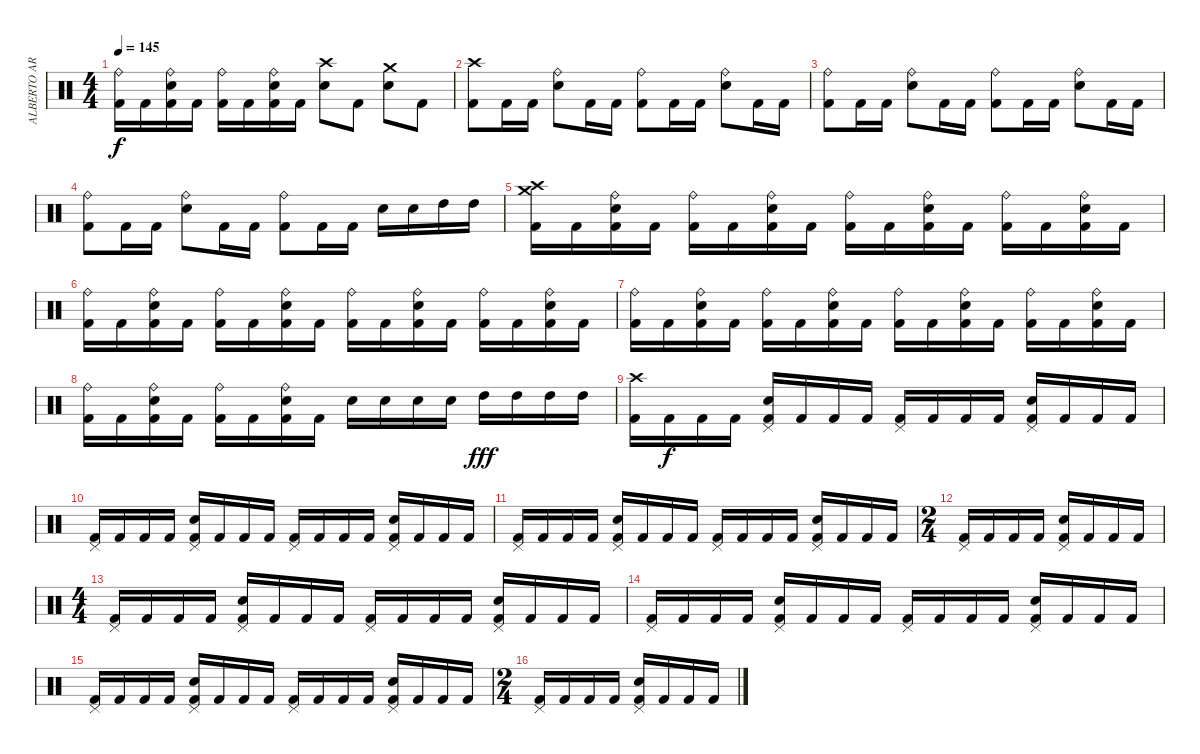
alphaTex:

\track ("ALBERTO ARDINES" "ALBERTO AR") {instrument percussion}
\staff {score}
\articulation defaults
\ts (4 4)
\tempo 145
\clef neutral
\ks c
("Ride (bell)" "Kick (hit) 2").16{dy f} "Kick (hit) 2".16 ("Ride (bell)" "Electric Snare (hit)" "Kick (hit) 2").16 "Kick (hit) 2".16 ("Ride (bell)" "Kick (hit) 2").16 "Kick (hit) 2".16 ("Ride (bell)" "Electric Snare (hit)" "Kick (hit) 2").16 "Kick (hit) 2".16 ("Crash high (hit)" "Electric Snare (hit)").8 "Kick (hit) 2".8 ("Crash medium (hit)" "Electric Snare (hit)").8 "Kick (hit) 2".8 |
("Crash high (hit)" "Kick (hit) 2").8 "Kick (hit) 2".16 "Kick (hit) 2".16 ("Ride (bell)" "Electric Snare (hit)").8 "Kick (hit) 2".16 "Kick (hit) 2".16 ("Ride (bell)" "Kick (hit) 2").8 "Kick (hit) 2".16 "Kick (hit) 2".16 ("Ride (bell)" "Electric Snare (hit)").8 "Kick (hit) 2".16 "Kick (hit) 2".16 |
("Ride (bell)" "Kick (hit) 2").8 "Kick (hit) 2".16 "Kick (hit) 2".16 ("Ride (bell)" "Electric Snare (hit)").8 "Kick (hit) 2".16 "Kick (hit) 2".16 ("Ride (bell)" "Kick (hit) 2").8 "Kick (hit) 2".16 "Kick (hit) 2".16 ("Ride (bell)" "Electric Snare (hit)").8 "Kick (hit) 2".16 "Kick (hit) 2".16 |
("Ride (bell)" "Kick (hit) 2").8 "Kick (hit) 2".16 "Kick (hit) 2".16 ("Ride (bell)" "Electric Snare (hit)").8 "Kick (hit) 2".16 "Kick (hit) 2".16 ("Ride (bell)" "Kick (hit) 2").8 "Kick (hit) 2".16 "Kick (hit) 2".16 "Electric Snare (hit)".16 "Electric Snare (hit)".16 "High Tom (hit)".16 "High Tom (hit)".16 |
("Crash high (hit)" "Crash medium (hit)" "Kick (hit) 2").16 "Kick (hit) 2".16 ("Ride (bell)" "Electric Snare (hit)" "Kick (hit) 2").16 "Kick (hit) 2".16 ("Ride (bell)" "Kick (hit) 2").16 "Kick (hit) 2".16 ("Ride (bell)" "Electric Snare (hit)" "Kick (hit) 2").16 "Kick (hit) 2".16 ("Ride (bell)" "Kick (hit) 2").16 "Kick (hit) 2".16 ("Ride (bell)" "Electric Snare (hit)" "Kick (hit) 2").16 "Kick (hit) 2".16 ("Ride (bell)" "Kick (hit) 2").16 "Kick (hit) 2".16 ("Ride (bell)" "Electric Snare (hit)" "Kick (hit) 2").16 "Kick (hit) 2".16 |
("Ride (bell)" "Kick (hit) 2").16 "Kick (hit) 2".16 ("Ride (bell)" "Electric Snare (hit)" "Kick (hit) 2").16 "Kick (hit) 2".16 ("Ride (bell)" "Kick (hit) 2").16 "Kick (hit) 2".16 ("Ride (bell)" "Electric Snare (hit)" "Kick (hit) 2").16 "Kick (hit) 2".16 ("Ride (bell)" "Kick (hit) 2").16 "Kick (hit) 2".16 ("Ride (bell)" "Electric Snare (hit)" "Kick (hit) 2").16 "Kick (hit) 2".16 ("Ride (bell)" "Kick (hit) 2").16 "Kick (hit) 2".16 ("Ride (bell)" "Electric Snare (hit)" "Kick (hit) 2").16 "Kick (hit) 2".16 |
("Ride (bell)" "Kick (hit) 2").16 "Kick (hit) 2".16 ("Ride (bell)" "Electric Snare (hit)" "Kick (hit) 2").16 "Kick (hit) 2".16 ("Ride (bell)" "Kick (hit) 2").16 "Kick (hit) 2".16 ("Ride (bell)" "Electric Snare (hit)" "Kick (hit) 2").16 "Kick (hit) 2".16 ("Ride (bell)" "Kick (hit) 2").16 "Kick (hit) 2".16 ("Ride (bell)" "Electric Snare (hit)" "Kick (hit) 2").16 "Kick (hit) 2".16 ("Ride (bell)" "Kick (hit) 2").16 "Kick (hit) 2".16 ("Ride (bell)" "Electric Snare (hit)" "Kick (hit) 2").16 "Kick (hit) 2".16 |
("Ride (bell)" "Kick (hit) 2").16 "Kick (hit) 2".16 ("Ride (bell)" "Electric Snare (hit)" "Kick (hit) 2").16 "Kick (hit) 2".16 ("Ride (bell)" "Kick (hit) 2").16 "Kick (hit) 2".16 ("Ride (bell)" "Electric Snare (hit)" "Kick (hit) 2").16 "Kick (hit) 2".16 "Electric Snare (hit)".16 "Electric Snare (hit)".16 "Electric Snare (hit)".16 "Electric Snare (hit)".16 "High Tom (hit)".16{dy fff} "High Tom (hit)".16 "High Tom (hit)".16 "High Tom (hit)".16 |
("Crash high (hit)" "Kick (hit) 2").16 "Kick (hit) 2".16{dy f} "Kick (hit) 2".16 "Kick (hit) 2".16 ("Pedal Hi-Hat (hit)" "Electric Snare (hit)" "Kick (hit) 2").16 "Kick (hit) 2".16 "Kick (hit) 2".16 "Kick (hit) 2".16 ("Pedal Hi-Hat (hit)" "Kick (hit) 2").16 "Kick (hit) 2".16 "Kick (hit) 2".16 "Kick (hit) 2".16 ("Pedal Hi-Hat (hit)" "Electric Snare (hit)" "Kick (hit) 2").16 "Kick (hit) 2".16 "Kick (hit) 2".16 "Kick (hit) 2".16 |
("Pedal Hi-Hat (hit)" "Kick (hit) 2").16 "Kick (hit) 2".16 "Kick (hit) 2".16 "Kick (hit) 2".16 ("Pedal Hi-Hat (hit)" "Electric Snare (hit)" "Kick (hit) 2").16 "Kick (hit) 2".16 "Kick (hit) 2".16 "Kick (hit) 2".16 ("Pedal Hi-Hat (hit)" "Kick (hit) 2").16 "Kick (hit) 2".16 "Kick (hit) 2".16 "Kick (hit) 2".16 ("Pedal Hi-Hat (hit)" "Electric Snare (hit)" "Kick (hit) 2").16 "Kick (hit) 2".16 "Kick (hit) 2".16 "Kick (hit) 2".16 |
("Pedal Hi-Hat (hit)" "Kick (hit) 2").16 "Kick (hit) 2".16 "Kick (hit) 2".16 "Kick (hit) 2".16 ("Pedal Hi-Hat (hit)" "Electric Snare (hit)" "Kick (hit) 2").16 "Kick (hit) 2".16 "Kick (hit) 2".16 "Kick (hit) 2".16 ("Pedal Hi-Hat (hit)" "Kick (hit) 2").16 "Kick (hit) 2".16 "Kick (hit) 2".16 "Kick (hit) 2".16 ("Pedal Hi-Hat (hit)" "Electric Snare (hit)" "Kick (hit) 2").16 "Kick (hit) 2".16 "Kick (hit) 2".16 "Kick (hit) 2".16 |
\ts (2 4)
("Pedal Hi-Hat (hit)" "Kick (hit) 2").16 "Kick (hit) 2".16 "Kick (hit) 2".16 "Kick (hit) 2".16 ("Pedal Hi-Hat (hit)" "Electric Snare (hit)" "Kick (hit) 2").16 "Kick (hit) 2".16 "Kick (hit) 2".16 "Kick (hit) 2".16 |
\ts (4 4)
("Pedal Hi-Hat (hit)" "Kick (hit) 2").16 "Kick (hit) 2".16 "Kick (hit) 2".16 "Kick (hit) 2".16 ("Pedal Hi-Hat (hit)" "Electric Snare (hit)" "Kick (hit) 2").16 "Kick (hit) 2".16 "Kick (hit) 2".16 "Kick (hit) 2".16 ("Pedal Hi-Hat (hit)" "Kick (hit) 2").16 "Kick (hit) 2".16 "Kick (hit) 2".16 "Kick (hit) 2".16 ("Pedal Hi-Hat (hit)" "Electric Snare (hit)" "Kick (hit) 2").16 "Kick (hit) 2".16 "Kick (hit) 2".16 "Kick (hit) 2".16 |
("Pedal Hi-Hat (hit)" "Kick (hit) 2").16 "Kick (hit) 2".16 "Kick (hit) 2".16 "Kick (hit) 2".16 ("Pedal Hi-Hat (hit)" "Electric Snare (hit)" "Kick (hit) 2").16 "Kick (hit) 2".16 "Kick (hit) 2".16 "Kick (hit) 2".16 ("Pedal Hi-Hat (hit)" "Kick (hit) 2").16 "Kick (hit) 2".16 "Kick (hit) 2".16 "Kick (hit) 2".16 ("Pedal Hi-Hat (hit)" "Electric Snare (hit)" "Kick (hit) 2").16 "Kick (hit) 2".16 "Kick (hit) 2".16 "Kick (hit) 2".16 |
("Pedal Hi-Hat (hit)" "Kick (hit) 2").16 "Kick (hit) 2".16 "Kick (hit) 2".16 "Kick (hit) 2".16 ("Pedal Hi-Hat (hit)" "Electric Snare (hit)" "Kick (hit) 2").16 "Kick (hit) 2".16 "Kick (hit) 2".16 "Kick (hit) 2".16 ("Pedal Hi-Hat (hit)" "Kick (hit) 2").16 "Kick (hit) 2".16 "Kick (hit) 2".16 "Kick (hit) 2".16 ("Pedal Hi-Hat (hit)" "Electric Snare (hit)" "Kick (hit) 2").16 "Kick (hit) 2".16 "Kick (hit) 2".16 "Kick (hit) 2".16 |
\ts (2 4)
("Pedal Hi-Hat (hit)" "Kick (hit) 2").16 "Kick (hit) 2".16 "Kick (hit) 2".16 "Kick (hit) 2".16 ("Pedal Hi-Hat (hit)" "Electric Snare (hit)" "Kick (hit) 2").16 "Kick (hit) 2".16 "Kick (hit) 2".16 "Kick (hit) 2".16
